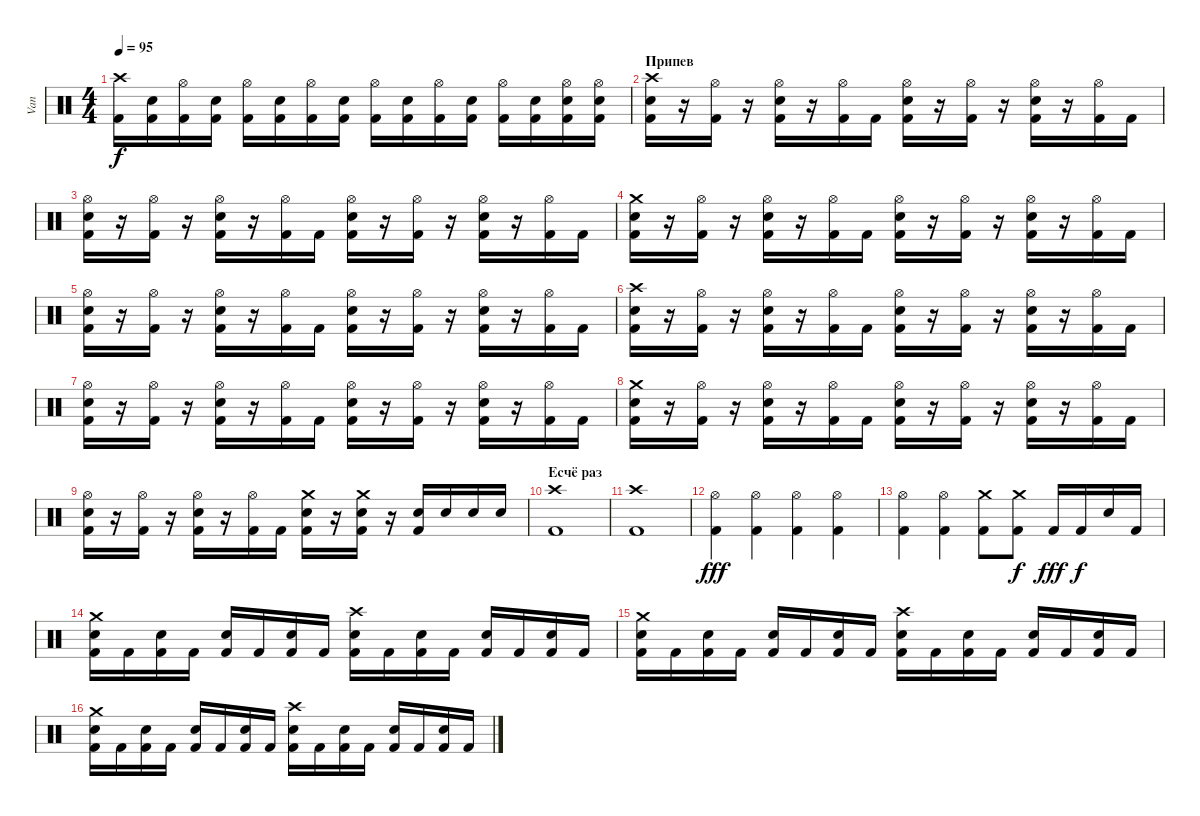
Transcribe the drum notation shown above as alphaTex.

\track ("Van" "Van") {instrument percussion}
\staff {score}
\articulation defaults
\ts (4 4)
\tempo 95
\clef neutral
\ks c
("Crash high (hit)" "Kick (hit) 2").16{dy f} ("Electric Snare (hit)" "Kick (hit) 2").16 ("Hi-Hat (open)" "Kick (hit) 2").16 ("Electric Snare (hit)" "Kick (hit) 2").16 ("Hi-Hat (open)" "Kick (hit) 2").16 ("Electric Snare (hit)" "Kick (hit) 2").16 ("Hi-Hat (open)" "Kick (hit) 2").16 ("Electric Snare (hit)" "Kick (hit) 2").16 ("Hi-Hat (open)" "Kick (hit) 2").16 ("Electric Snare (hit)" "Kick (hit) 2").16 ("Hi-Hat (open)" "Kick (hit) 2").16 ("Electric Snare (hit)" "Kick (hit) 2").16 ("Hi-Hat (open)" "Kick (hit) 2").16 ("Electric Snare (hit)" "Kick (hit) 2").16 ("Hi-Hat (open)" "Electric Snare (hit)" "Kick (hit) 2").16 ("Hi-Hat (open)" "Electric Snare (hit)" "Kick (hit) 2").16 |
\section ("" "Припев")
("Crash high (hit)" "Electric Snare (hit)" "Kick (hit) 2").16 r.16 ("Hi-Hat (open)" "Kick (hit) 2").16 r.16 ("Hi-Hat (open)" "Electric Snare (hit)" "Kick (hit) 2").16 r.16 ("Hi-Hat (open)" "Kick (hit) 2").16 "Kick (hit) 2".16 ("Hi-Hat (open)" "Electric Snare (hit)" "Kick (hit) 2").16 r.16 ("Hi-Hat (open)" "Kick (hit) 2").16 r.16 ("Hi-Hat (open)" "Electric Snare (hit)" "Kick (hit) 2").16 r.16 ("Hi-Hat (open)" "Kick (hit) 2").16 "Kick (hit) 2".16 |
("Hi-Hat (open)" "Electric Snare (hit)" "Kick (hit) 2").16 r.16 ("Hi-Hat (open)" "Kick (hit) 2").16 r.16 ("Hi-Hat (open)" "Electric Snare (hit)" "Kick (hit) 2").16 r.16 ("Hi-Hat (open)" "Kick (hit) 2").16 "Kick (hit) 2".16 ("Hi-Hat (open)" "Electric Snare (hit)" "Kick (hit) 2").16 r.16 ("Hi-Hat (open)" "Kick (hit) 2").16 r.16 ("Hi-Hat (open)" "Electric Snare (hit)" "Kick (hit) 2").16 r.16 ("Hi-Hat (open)" "Kick (hit) 2").16 "Kick (hit) 2".16 |
("Crash medium (hit)" "Electric Snare (hit)" "Kick (hit) 2").16 r.16 ("Hi-Hat (open)" "Kick (hit) 2").16 r.16 ("Hi-Hat (open)" "Electric Snare (hit)" "Kick (hit) 2").16 r.16 ("Hi-Hat (open)" "Kick (hit) 2").16 "Kick (hit) 2".16 ("Hi-Hat (open)" "Electric Snare (hit)" "Kick (hit) 2").16 r.16 ("Hi-Hat (open)" "Kick (hit) 2").16 r.16 ("Hi-Hat (open)" "Electric Snare (hit)" "Kick (hit) 2").16 r.16 ("Hi-Hat (open)" "Kick (hit) 2").16 "Kick (hit) 2".16 |
("Hi-Hat (open)" "Electric Snare (hit)" "Kick (hit) 2").16 r.16 ("Hi-Hat (open)" "Kick (hit) 2").16 r.16 ("Hi-Hat (open)" "Electric Snare (hit)" "Kick (hit) 2").16 r.16 ("Hi-Hat (open)" "Kick (hit) 2").16 "Kick (hit) 2".16 ("Hi-Hat (open)" "Electric Snare (hit)" "Kick (hit) 2").16 r.16 ("Hi-Hat (open)" "Kick (hit) 2").16 r.16 ("Hi-Hat (open)" "Electric Snare (hit)" "Kick (hit) 2").16 r.16 ("Hi-Hat (open)" "Kick (hit) 2").16 "Kick (hit) 2".16 |
("Crash high (hit)" "Electric Snare (hit)" "Kick (hit) 2").16 r.16 ("Hi-Hat (open)" "Kick (hit) 2").16 r.16 ("Hi-Hat (open)" "Electric Snare (hit)" "Kick (hit) 2").16 r.16 ("Hi-Hat (open)" "Kick (hit) 2").16 "Kick (hit) 2".16 ("Hi-Hat (open)" "Electric Snare (hit)" "Kick (hit) 2").16 r.16 ("Hi-Hat (open)" "Kick (hit) 2").16 r.16 ("Hi-Hat (open)" "Electric Snare (hit)" "Kick (hit) 2").16 r.16 ("Hi-Hat (open)" "Kick (hit) 2").16 "Kick (hit) 2".16 |
("Hi-Hat (open)" "Electric Snare (hit)" "Kick (hit) 2").16 r.16 ("Hi-Hat (open)" "Kick (hit) 2").16 r.16 ("Hi-Hat (open)" "Electric Snare (hit)" "Kick (hit) 2").16 r.16 ("Hi-Hat (open)" "Kick (hit) 2").16 "Kick (hit) 2".16 ("Hi-Hat (open)" "Electric Snare (hit)" "Kick (hit) 2").16 r.16 ("Hi-Hat (open)" "Kick (hit) 2").16 r.16 ("Hi-Hat (open)" "Electric Snare (hit)" "Kick (hit) 2").16 r.16 ("Hi-Hat (open)" "Kick (hit) 2").16 "Kick (hit) 2".16 |
("Crash medium (hit)" "Electric Snare (hit)" "Kick (hit) 2").16 r.16 ("Hi-Hat (open)" "Kick (hit) 2").16 r.16 ("Hi-Hat (open)" "Electric Snare (hit)" "Kick (hit) 2").16 r.16 ("Hi-Hat (open)" "Kick (hit) 2").16 "Kick (hit) 2".16 ("Hi-Hat (open)" "Electric Snare (hit)" "Kick (hit) 2").16 r.16 ("Hi-Hat (open)" "Kick (hit) 2").16 r.16 ("Hi-Hat (open)" "Electric Snare (hit)" "Kick (hit) 2").16 r.16 ("Hi-Hat (open)" "Kick (hit) 2").16 "Kick (hit) 2".16 |
("Hi-Hat (open)" "Electric Snare (hit)" "Kick (hit) 2").16 r.16 ("Hi-Hat (open)" "Kick (hit) 2").16 r.16 ("Hi-Hat (open)" "Electric Snare (hit)" "Kick (hit) 2").16 r.16 ("Hi-Hat (open)" "Kick (hit) 2").16 "Kick (hit) 2".16 ("Crash medium (hit)" "Electric Snare (hit)" "Kick (hit) 2").16 r.16 ("Crash medium (hit)" "Electric Snare (hit)" "Kick (hit) 2").16 r.16 ("Electric Snare (hit)" "Kick (hit) 2").16 "Electric Snare (hit)".16 "Electric Snare (hit)".16 "Electric Snare (hit)".16 |
\section ("" "Есчё раз")
("Crash high (hit)" "Kick (hit) 2").1 |
("Crash high (hit)" "Kick (hit) 2").1 |
("Hi-Hat (open)" "Kick (hit) 2").4{dy fff} ("Hi-Hat (open)" "Kick (hit) 2").4 ("Hi-Hat (open)" "Kick (hit) 2").4 ("Hi-Hat (open)" "Kick (hit) 2").4 |
("Hi-Hat (open)" "Kick (hit) 2").4 ("Hi-Hat (open)" "Kick (hit) 2").4 ("Crash medium (hit)" "Kick (hit) 2").8 ("Crash medium (hit)" "Kick (hit) 2").8{dy f} "Kick (hit) 2".16{dy fff} "Kick (hit) 2".16{dy f} "Electric Snare (hit)".16 "Kick (hit) 2".16 |
("Crash medium (hit)" "Electric Snare (hit)" "Kick (hit) 2").16 "Kick (hit) 2".16 ("Electric Snare (hit)" "Kick (hit) 2").16 "Kick (hit) 2".16 ("Electric Snare (hit)" "Kick (hit) 2").16 "Kick (hit) 2".16 ("Electric Snare (hit)" "Kick (hit) 2").16 "Kick (hit) 2".16 ("Crash high (hit)" "Electric Snare (hit)" "Kick (hit) 2").16 "Kick (hit) 2".16 ("Electric Snare (hit)" "Kick (hit) 2").16 "Kick (hit) 2".16 ("Electric Snare (hit)" "Kick (hit) 2").16 "Kick (hit) 2".16 ("Electric Snare (hit)" "Kick (hit) 2").16 "Kick (hit) 2".16 |
("Crash medium (hit)" "Electric Snare (hit)" "Kick (hit) 2").16 "Kick (hit) 2".16 ("Electric Snare (hit)" "Kick (hit) 2").16 "Kick (hit) 2".16 ("Electric Snare (hit)" "Kick (hit) 2").16 "Kick (hit) 2".16 ("Electric Snare (hit)" "Kick (hit) 2").16 "Kick (hit) 2".16 ("Crash high (hit)" "Electric Snare (hit)" "Kick (hit) 2").16 "Kick (hit) 2".16 ("Electric Snare (hit)" "Kick (hit) 2").16 "Kick (hit) 2".16 ("Electric Snare (hit)" "Kick (hit) 2").16 "Kick (hit) 2".16 ("Electric Snare (hit)" "Kick (hit) 2").16 "Kick (hit) 2".16 |
("Crash medium (hit)" "Electric Snare (hit)" "Kick (hit) 2").16 "Kick (hit) 2".16 ("Electric Snare (hit)" "Kick (hit) 2").16 "Kick (hit) 2".16 ("Electric Snare (hit)" "Kick (hit) 2").16 "Kick (hit) 2".16 ("Electric Snare (hit)" "Kick (hit) 2").16 "Kick (hit) 2".16 ("Crash high (hit)" "Electric Snare (hit)" "Kick (hit) 2").16 "Kick (hit) 2".16 ("Electric Snare (hit)" "Kick (hit) 2").16 "Kick (hit) 2".16 ("Electric Snare (hit)" "Kick (hit) 2").16 "Kick (hit) 2".16 ("Electric Snare (hit)" "Kick (hit) 2").16 "Kick (hit) 2".16
